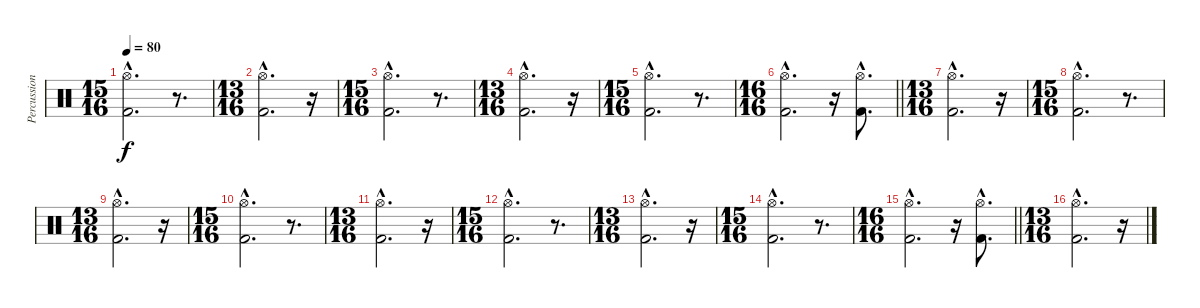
\track ("Percussion" "Percussion") {instrument percussion}
\staff {score}
\articulation defaults
\ts (15 16)
\tempo 80
\clef neutral
\ks c
("Hi-Hat (open)"{hac} "Kick (hit) 2"{hac}).2{d dy f} r.8{d} |
\ts (13 16)
("Hi-Hat (open)"{hac} "Kick (hit) 2"{hac}).2{d} r.16 |
\ts (15 16)
("Hi-Hat (open)"{hac} "Kick (hit) 2"{hac}).2{d} r.8{d} |
\ts (13 16)
("Hi-Hat (open)"{hac} "Kick (hit) 2"{hac}).2{d} r.16 |
\ts (15 16)
("Hi-Hat (open)"{hac} "Kick (hit) 2"{hac}).2{d} r.8{d} |
\ts (16 16)
\barLineRight lightlight
("Hi-Hat (open)"{hac} "Kick (hit) 2"{hac}).2{d} r.16 ("Hi-Hat (open)"{hac} "Kick (hit) 2"{hac}).8{d} |
\ts (13 16)
\section ("" "")
("Hi-Hat (open)"{hac} "Kick (hit) 2"{hac}).2{d} r.16 |
\ts (15 16)
("Hi-Hat (open)"{hac} "Kick (hit) 2"{hac}).2{d} r.8{d} |
\ts (13 16)
("Hi-Hat (open)"{hac} "Kick (hit) 2"{hac}).2{d} r.16 |
\ts (15 16)
("Hi-Hat (open)"{hac} "Kick (hit) 2"{hac}).2{d} r.8{d} |
\ts (13 16)
("Hi-Hat (open)"{hac} "Kick (hit) 2"{hac}).2{d} r.16 |
\ts (15 16)
("Hi-Hat (open)"{hac} "Kick (hit) 2"{hac}).2{d} r.8{d} |
\ts (13 16)
("Hi-Hat (open)"{hac} "Kick (hit) 2"{hac}).2{d} r.16 |
\ts (15 16)
("Hi-Hat (open)"{hac} "Kick (hit) 2"{hac}).2{d} r.8{d} |
\ts (16 16)
\barLineRight lightlight
("Hi-Hat (open)"{hac} "Kick (hit) 2"{hac}).2{d} r.16 ("Hi-Hat (open)"{hac} "Kick (hit) 2"{hac}).8{d} |
\ts (13 16)
\section ("" "")
("Hi-Hat (open)"{hac} "Kick (hit) 2"{hac}).2{d} r.16
